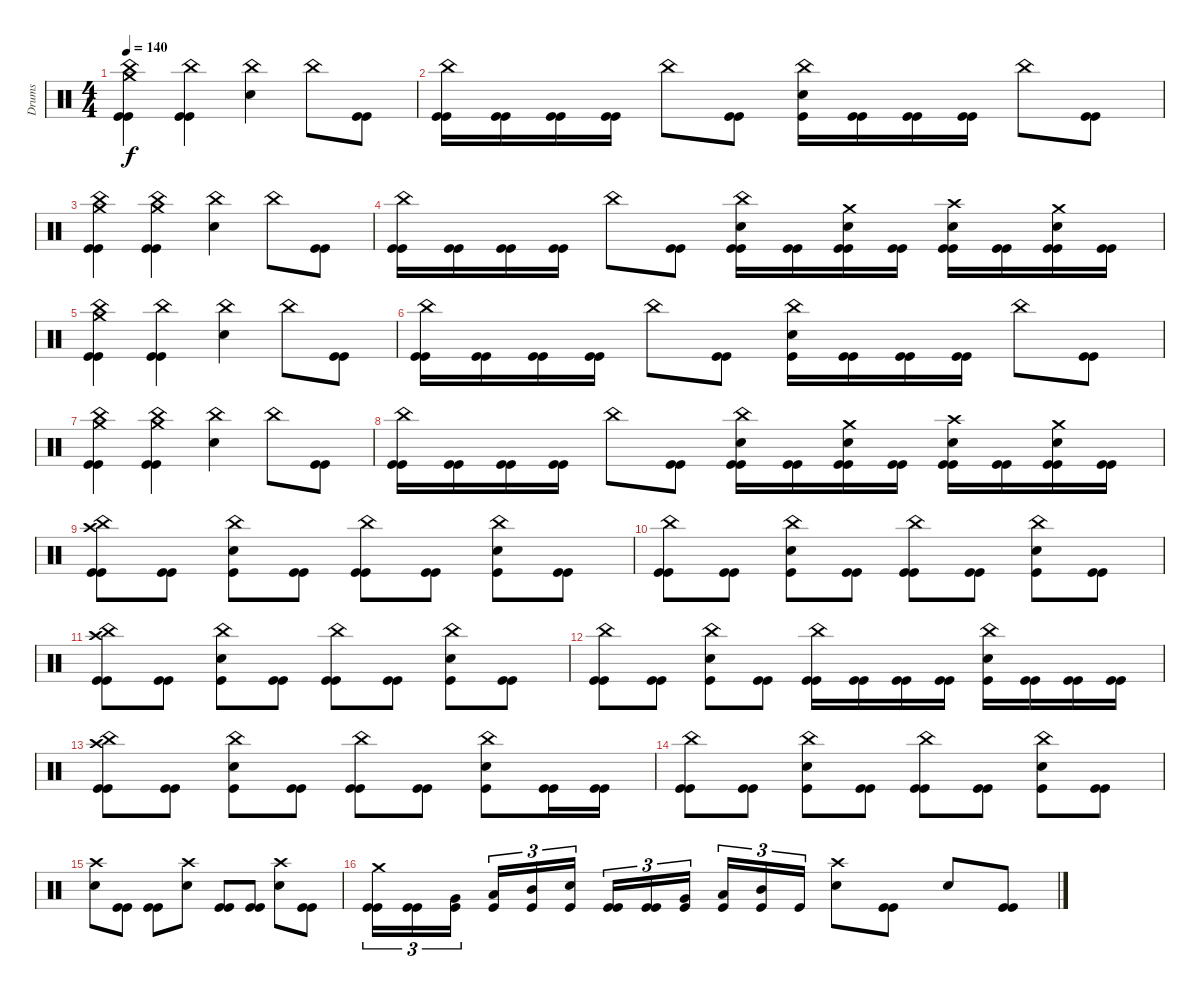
\track ("Drums" "Drums") {instrument percussion bank 97}
\staff {score}
\articulation defaults
\ts (4 4)
\tempo 140
\clef neutral
\ks c
("China (hit)" "Crash medium (hit)" "Kick (hit)" "Kick (hit)").4{dy f} ("China (hit)" "Kick (hit)" "Kick (hit)").4 ("China (hit)" "Electric Snare (hit)").4 "China (hit)".8 ("Kick (hit)" "Kick (hit)").8 |
("China (hit)" "Kick (hit)" "Kick (hit)").16 ("Kick (hit)" "Kick (hit)").16 ("Kick (hit)" "Kick (hit)").16 ("Kick (hit)" "Kick (hit)").16 "China (hit)".8 ("Kick (hit)" "Kick (hit)").8 ("China (hit)" "Electric Snare (hit)" "Kick (hit)").16 ("Kick (hit)" "Kick (hit)").16 ("Kick (hit)" "Kick (hit)").16 ("Kick (hit)" "Kick (hit)").16 "China (hit)".8 ("Kick (hit)" "Kick (hit)").8 |
("China (hit)" "Crash medium (hit)" "Kick (hit)" "Kick (hit)").4 ("China (hit)" "Crash medium (hit)" "Kick (hit)" "Kick (hit)").4 ("China (hit)" "Electric Snare (hit)").4 "China (hit)".8 ("Kick (hit)" "Kick (hit)").8 |
("China (hit)" "Kick (hit)" "Kick (hit)").16 ("Kick (hit)" "Kick (hit)").16 ("Kick (hit)" "Kick (hit)").16 ("Kick (hit)" "Kick (hit)").16 "China (hit)".8 ("Kick (hit)" "Kick (hit)").8 ("China (hit)" "Electric Snare (hit)" "Kick (hit)" "Kick (hit)").16 ("Kick (hit)" "Kick (hit)").16 ("Crash medium (hit)" "Electric Snare (hit)" "Kick (hit)" "Kick (hit)").16 ("Kick (hit)" "Kick (hit)").16 ("Crash high (hit)" "Electric Snare (hit)" "Kick (hit)" "Kick (hit)").16 ("Kick (hit)" "Kick (hit)").16 ("Crash medium (hit)" "Electric Snare (hit)" "Kick (hit)" "Kick (hit)").16 ("Kick (hit)" "Kick (hit)").16 |
("China (hit)" "Crash medium (hit)" "Kick (hit)" "Kick (hit)").4 ("China (hit)" "Kick (hit)" "Kick (hit)").4 ("China (hit)" "Electric Snare (hit)").4 "China (hit)".8 ("Kick (hit)" "Kick (hit)").8 |
("China (hit)" "Kick (hit)" "Kick (hit)").16 ("Kick (hit)" "Kick (hit)").16 ("Kick (hit)" "Kick (hit)").16 ("Kick (hit)" "Kick (hit)").16 "China (hit)".8 ("Kick (hit)" "Kick (hit)").8 ("China (hit)" "Electric Snare (hit)" "Kick (hit)").16 ("Kick (hit)" "Kick (hit)").16 ("Kick (hit)" "Kick (hit)").16 ("Kick (hit)" "Kick (hit)").16 "China (hit)".8 ("Kick (hit)" "Kick (hit)").8 |
("China (hit)" "Crash medium (hit)" "Kick (hit)" "Kick (hit)").4 ("China (hit)" "Crash medium (hit)" "Kick (hit)" "Kick (hit)").4 ("China (hit)" "Electric Snare (hit)").4 "China (hit)".8 ("Kick (hit)" "Kick (hit)").8 |
("China (hit)" "Kick (hit)" "Kick (hit)").16 ("Kick (hit)" "Kick (hit)").16 ("Kick (hit)" "Kick (hit)").16 ("Kick (hit)" "Kick (hit)").16 "China (hit)".8 ("Kick (hit)" "Kick (hit)").8 ("China (hit)" "Electric Snare (hit)" "Kick (hit)" "Kick (hit)").16 ("Kick (hit)" "Kick (hit)").16 ("Crash medium (hit)" "Electric Snare (hit)" "Kick (hit)" "Kick (hit)").16 ("Kick (hit)" "Kick (hit)").16 ("Crash high (hit)" "Electric Snare (hit)" "Kick (hit)" "Kick (hit)").16 ("Kick (hit)" "Kick (hit)").16 ("Crash medium (hit)" "Electric Snare (hit)" "Kick (hit)" "Kick (hit)").16 ("Kick (hit)" "Kick (hit)").16 |
("China (hit)" "Crash high (hit)" "Kick (hit)" "Kick (hit)").8 ("Kick (hit)" "Kick (hit)").8 ("China (hit)" "Electric Snare (hit)" "Kick (hit)").8 ("Kick (hit)" "Kick (hit)").8 ("China (hit)" "Kick (hit)" "Kick (hit)").8 ("Kick (hit)" "Kick (hit)").8 ("China (hit)" "Electric Snare (hit)" "Kick (hit)").8 ("Kick (hit)" "Kick (hit)").8 |
("China (hit)" "Kick (hit)" "Kick (hit)").8 ("Kick (hit)" "Kick (hit)").8 ("China (hit)" "Electric Snare (hit)" "Kick (hit)").8 ("Kick (hit)" "Kick (hit)").8 ("China (hit)" "Kick (hit)" "Kick (hit)").8 ("Kick (hit)" "Kick (hit)").8 ("China (hit)" "Electric Snare (hit)" "Kick (hit)").8 ("Kick (hit)" "Kick (hit)").8 |
("China (hit)" "Crash high (hit)" "Kick (hit)" "Kick (hit)").8 ("Kick (hit)" "Kick (hit)").8 ("China (hit)" "Electric Snare (hit)" "Kick (hit)").8 ("Kick (hit)" "Kick (hit)").8 ("China (hit)" "Kick (hit)" "Kick (hit)").8 ("Kick (hit)" "Kick (hit)").8 ("China (hit)" "Electric Snare (hit)" "Kick (hit)").8 ("Kick (hit)" "Kick (hit)").8 |
("China (hit)" "Kick (hit)" "Kick (hit)").8 ("Kick (hit)" "Kick (hit)").8 ("China (hit)" "Electric Snare (hit)" "Kick (hit)").8 ("Kick (hit)" "Kick (hit)").8 ("China (hit)" "Kick (hit)" "Kick (hit)").16 ("Kick (hit)" "Kick (hit)").16 ("Kick (hit)" "Kick (hit)").16 ("Kick (hit)" "Kick (hit)").16 ("China (hit)" "Electric Snare (hit)" "Kick (hit)").16 ("Kick (hit)" "Kick (hit)").16 ("Kick (hit)" "Kick (hit)").16 ("Kick (hit)" "Kick (hit)").16 |
("China (hit)" "Crash high (hit)" "Kick (hit)" "Kick (hit)").8 ("Kick (hit)" "Kick (hit)").8 ("China (hit)" "Electric Snare (hit)" "Kick (hit)").8 ("Kick (hit)" "Kick (hit)").8 ("China (hit)" "Kick (hit)" "Kick (hit)").8 ("Kick (hit)" "Kick (hit)").8 ("China (hit)" "Electric Snare (hit)" "Kick (hit)").8 ("Kick (hit)" "Kick (hit)").16 ("Kick (hit)" "Kick (hit)").16 |
("China (hit)" "Kick (hit)" "Kick (hit)").8 ("Kick (hit)" "Kick (hit)").8 ("China (hit)" "Electric Snare (hit)" "Kick (hit)").8 ("Kick (hit)" "Kick (hit)").8 ("China (hit)" "Kick (hit)" "Kick (hit)").8 ("Kick (hit)" "Kick (hit)").8 ("China (hit)" "Electric Snare (hit)" "Kick (hit)").8 ("Kick (hit)" "Kick (hit)").8 |
("Crash high (hit)" "Electric Snare (hit)").8 ("Kick (hit)" "Kick (hit)").8 ("Kick (hit)" "Kick (hit)").8 ("Crash high (hit)" "Electric Snare (hit)").8 ("Kick (hit)" "Kick (hit)").8 ("Kick (hit)" "Kick (hit)").8 ("Crash high (hit)" "Electric Snare (hit)").8 ("Kick (hit)" "Kick (hit)").8 |
("Crash medium (hit)" "Kick (hit)" "Kick (hit)").16{tu (3 2)} ("Kick (hit)" "Kick (hit)").16{tu (3 2)} ("Very Low Tom (hit)" "Kick (hit)").16{tu (3 2) beam splitsecondary} ("Low Tom (hit)" "Kick (hit)").16{tu (3 2)} ("Mid Tom (hit)" "Kick (hit)").16{tu (3 2)} ("Electric Snare (hit)" "Kick (hit)").16{tu (3 2)} ("Kick (hit)" "Kick (hit)").16{tu (3 2)} ("Kick (hit)" "Kick (hit)").16{tu (3 2)} ("Very Low Tom (hit)" "Kick (hit)").16{tu (3 2) beam splitsecondary} ("Low Tom (hit)" "Kick (hit)").16{tu (3 2)} ("Mid Tom (hit)" "Kick (hit)").16{tu (3 2)} "Kick (hit)".16{tu (3 2)} ("Crash high (hit)" "Electric Snare (hit)").8 ("Kick (hit)" "Kick (hit)").8 "Electric Snare (hit)".8 ("Kick (hit)" "Kick (hit)").8
